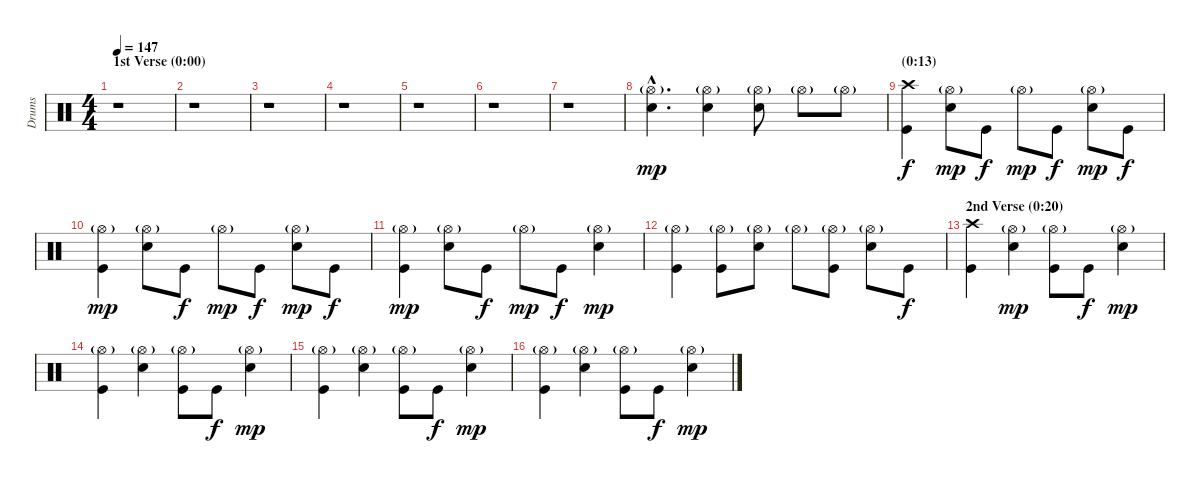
\track ("Drums" "Drums") {instrument percussion}
\staff {score}
\articulation defaults
\ts (4 4)
\section ("" "1st Verse (0:00)")
\tempo 147
\clef neutral
\ks c
r.1{dy mp} |
r.1 |
r.1 |
r.1 |
r.1 |
r.1 |
r.1 |
("Hi-Hat (open)"{g hac} "Snare (hit) 2"{hac}).4{d} ("Hi-Hat (open)"{g} "Snare (hit) 2").4 ("Hi-Hat (open)"{g} "Snare (hit) 2").8 "Hi-Hat (open)"{g}.8 "Hi-Hat (open)"{g}.8 |
\section ("" "(0:13)")
("Crash high (hit)" "Kick (hit)").4{dy f} ("Hi-Hat (open)"{g} "Snare (hit) 2").8{dy mp} "Kick (hit)".8{dy f} "Hi-Hat (open)"{g}.8{dy mp} "Kick (hit)".8{dy f} ("Hi-Hat (open)"{g} "Snare (hit) 2").8{dy mp} "Kick (hit)".8{dy f} |
("Hi-Hat (open)"{g} "Kick (hit)").4{dy mp} ("Hi-Hat (open)"{g} "Snare (hit) 2").8 "Kick (hit)".8{dy f} "Hi-Hat (open)"{g}.8{dy mp} "Kick (hit)".8{dy f} ("Hi-Hat (open)"{g} "Snare (hit) 2").8{dy mp} "Kick (hit)".8{dy f} |
("Hi-Hat (open)"{g} "Kick (hit)").4{dy mp} ("Hi-Hat (open)"{g} "Snare (hit) 2").8 "Kick (hit)".8{dy f} "Hi-Hat (open)"{g}.8{dy mp} "Kick (hit)".8{dy f} ("Hi-Hat (open)"{g} "Snare (hit) 2").4{dy mp} |
("Hi-Hat (open)"{g} "Kick (hit)").4 ("Hi-Hat (open)"{g} "Kick (hit)").8 ("Hi-Hat (open)"{g} "Snare (hit) 2").8 "Hi-Hat (open)"{g}.8 ("Hi-Hat (open)"{g} "Kick (hit)").8 ("Hi-Hat (open)"{g} "Snare (hit) 2").8 "Kick (hit)".8{dy f} |
\section ("" "2nd Verse (0:20)")
("Crash high (hit)" "Kick (hit)").4 ("Hi-Hat (open)"{g} "Snare (hit) 2").4{dy mp} ("Hi-Hat (open)"{g} "Kick (hit)").8 "Kick (hit)".8{dy f} ("Hi-Hat (open)"{g} "Snare (hit) 2").4{dy mp} |
("Hi-Hat (open)"{g} "Kick (hit)").4 ("Hi-Hat (open)"{g} "Snare (hit) 2").4 ("Hi-Hat (open)"{g} "Kick (hit)").8 "Kick (hit)".8{dy f} ("Hi-Hat (open)"{g} "Snare (hit) 2").4{dy mp} |
("Hi-Hat (open)"{g} "Kick (hit)").4 ("Hi-Hat (open)"{g} "Snare (hit) 2").4 ("Hi-Hat (open)"{g} "Kick (hit)").8 "Kick (hit)".8{dy f} ("Hi-Hat (open)"{g} "Snare (hit) 2").4{dy mp} |
("Hi-Hat (open)"{g} "Kick (hit)").4 ("Hi-Hat (open)"{g} "Snare (hit) 2").4 ("Hi-Hat (open)"{g} "Kick (hit)").8 "Kick (hit)".8{dy f} ("Hi-Hat (open)"{g} "Snare (hit) 2").4{dy mp}
